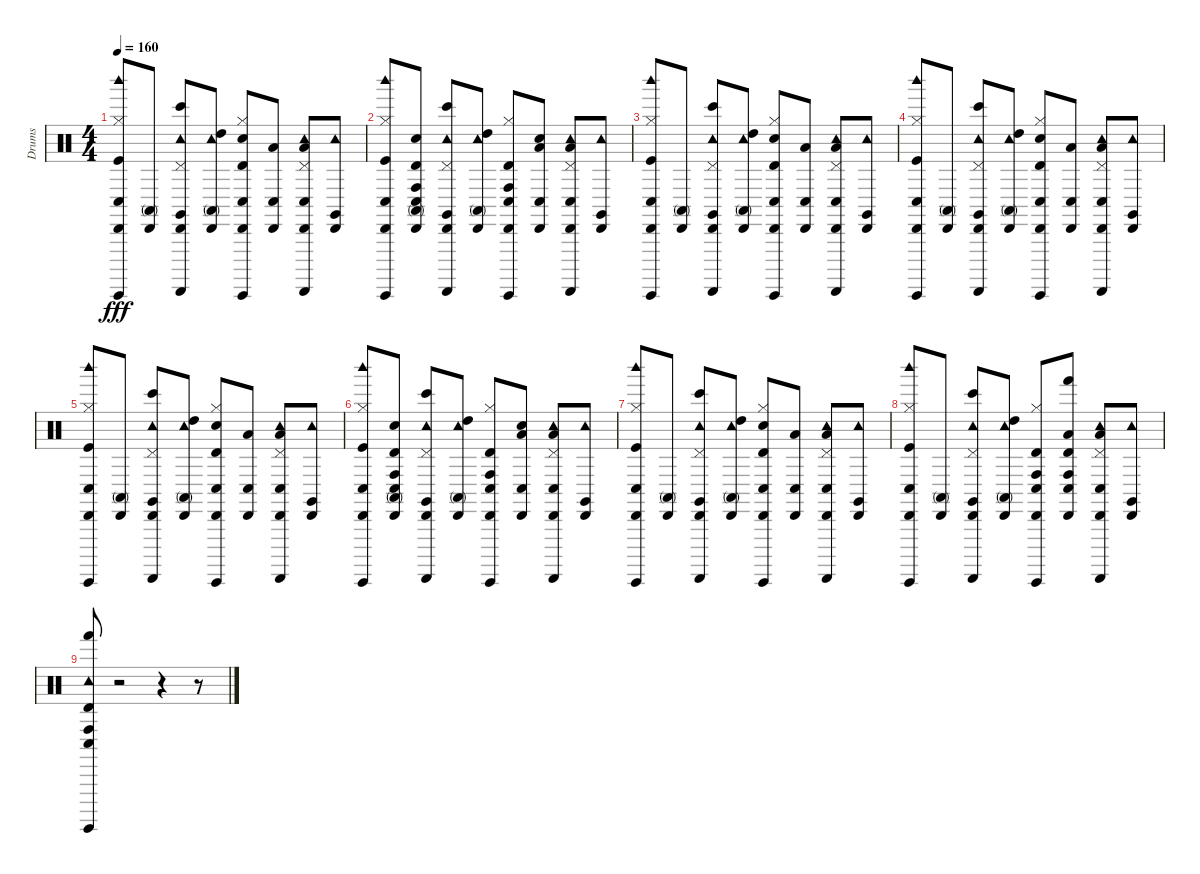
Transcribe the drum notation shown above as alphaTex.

\track ("Drums" "Drums") {instrument percussion}
\staff {score}
\articulation defaults
\ts (4 4)
\tempo 160
\clef neutral
\ks c
("Kick (hit)" "Cabasa (hit)" "Hi-Hat (closed)" "Guiro (hit)" "Woodblock high (hit)" "Conga low (hit)").8{dy fff} ("Cabasa (hit)" "Conga high (mute)").8 ("Tambourine (hit)" "Cabasa (hit)" "Pedal Hi-Hat (hit)" "Guiro (scrap-return)" "Claves (hit)" "Bongo High (hit)").8 ("Tambourine (hit)" "Cabasa (hit)" "High Tom (hit)" "Conga high (mute)").8 ("Electric Snare (hit)" "Cabasa (hit)" "Hi-Hat (closed)" "Guiro (hit)" "Timbale high (hit)" "Conga low (hit)").8 ("Cabasa (hit)" "Conga low (hit)" "Low Tom (hit)").8 ("Tambourine (hit)" "Cabasa (hit)" "Pedal Hi-Hat (hit)" "Guiro (scrap-return)" "Conga low (hit)" "Low Tom (hit)").8 ("Tambourine (hit)" "Cabasa (hit)" "Claves (hit)").8 |
("Kick (hit)" "Cabasa (hit)" "Hi-Hat (closed)" "Guiro (hit)" "Woodblock high (hit)" "Conga low (hit)").8 ("Cabasa (hit)" "Conga high (mute)" "Electric Snare (hit)" "Timbale high (hit)" "Conga low (hit)" "Conga high (hit)").8 ("Tambourine (hit)" "Cabasa (hit)" "Pedal Hi-Hat (hit)" "Guiro (scrap-return)" "Claves (hit)" "Bongo High (hit)").8 ("Tambourine (hit)" "Cabasa (hit)" "High Tom (hit)" "Conga high (mute)").8 ("Cabasa (hit)" "Hi-Hat (closed)" "Guiro (hit)" "Timbale high (hit)" "Conga low (hit)" "Conga high (hit)").8 ("Cabasa (hit)" "Conga low (hit)" "Low Tom (hit)" "Electric Snare (hit)").8 ("Tambourine (hit)" "Cabasa (hit)" "Pedal Hi-Hat (hit)" "Guiro (scrap-return)" "Conga low (hit)" "Low Tom (hit)").8 ("Tambourine (hit)" "Cabasa (hit)" "Claves (hit)").8 |
("Kick (hit)" "Cabasa (hit)" "Hi-Hat (closed)" "Guiro (hit)" "Woodblock high (hit)" "Conga low (hit)").8 ("Cabasa (hit)" "Conga high (mute)").8 ("Tambourine (hit)" "Cabasa (hit)" "Pedal Hi-Hat (hit)" "Guiro (scrap-return)" "Claves (hit)" "Bongo High (hit)").8 ("Tambourine (hit)" "Cabasa (hit)" "High Tom (hit)" "Conga high (mute)").8 ("Electric Snare (hit)" "Cabasa (hit)" "Hi-Hat (closed)" "Guiro (hit)" "Timbale high (hit)" "Conga low (hit)").8 ("Cabasa (hit)" "Conga low (hit)" "Low Tom (hit)").8 ("Tambourine (hit)" "Cabasa (hit)" "Pedal Hi-Hat (hit)" "Guiro (scrap-return)" "Conga low (hit)" "Low Tom (hit)").8 ("Tambourine (hit)" "Cabasa (hit)" "Claves (hit)").8 |
("Kick (hit)" "Cabasa (hit)" "Hi-Hat (closed)" "Guiro (hit)" "Woodblock high (hit)" "Conga low (hit)").8 ("Cabasa (hit)" "Conga high (mute)").8 ("Tambourine (hit)" "Cabasa (hit)" "Pedal Hi-Hat (hit)" "Guiro (scrap-return)" "Claves (hit)" "Bongo High (hit)").8 ("Tambourine (hit)" "Cabasa (hit)" "High Tom (hit)" "Conga high (mute)").8 ("Electric Snare (hit)" "Cabasa (hit)" "Hi-Hat (closed)" "Guiro (hit)" "Timbale high (hit)" "Conga low (hit)").8 ("Cabasa (hit)" "Conga low (hit)" "Low Tom (hit)").8 ("Tambourine (hit)" "Cabasa (hit)" "Pedal Hi-Hat (hit)" "Guiro (scrap-return)" "Conga low (hit)" "Low Tom (hit)").8 ("Tambourine (hit)" "Cabasa (hit)" "Claves (hit)").8 |
("Kick (hit)" "Cabasa (hit)" "Hi-Hat (closed)" "Guiro (hit)" "Woodblock high (hit)" "Conga low (hit)").8 ("Cabasa (hit)" "Conga high (mute)").8 ("Tambourine (hit)" "Cabasa (hit)" "Pedal Hi-Hat (hit)" "Guiro (scrap-return)" "Claves (hit)" "Bongo High (hit)").8 ("Tambourine (hit)" "Cabasa (hit)" "High Tom (hit)" "Conga high (mute)").8 ("Electric Snare (hit)" "Cabasa (hit)" "Hi-Hat (closed)" "Guiro (hit)" "Timbale high (hit)" "Conga low (hit)").8 ("Cabasa (hit)" "Conga low (hit)" "Low Tom (hit)").8 ("Tambourine (hit)" "Cabasa (hit)" "Pedal Hi-Hat (hit)" "Guiro (scrap-return)" "Conga low (hit)" "Low Tom (hit)").8 ("Tambourine (hit)" "Cabasa (hit)" "Claves (hit)").8 |
("Kick (hit)" "Cabasa (hit)" "Hi-Hat (closed)" "Guiro (hit)" "Woodblock high (hit)" "Conga low (hit)").8 ("Cabasa (hit)" "Conga high (mute)" "Electric Snare (hit)" "Timbale high (hit)" "Conga low (hit)" "Conga high (hit)").8 ("Tambourine (hit)" "Cabasa (hit)" "Pedal Hi-Hat (hit)" "Guiro (scrap-return)" "Claves (hit)" "Bongo High (hit)").8 ("Tambourine (hit)" "Cabasa (hit)" "High Tom (hit)" "Conga high (mute)").8 ("Cabasa (hit)" "Hi-Hat (closed)" "Guiro (hit)" "Timbale high (hit)" "Conga low (hit)" "Conga high (hit)").8 ("Cabasa (hit)" "Conga low (hit)" "Low Tom (hit)" "Electric Snare (hit)").8 ("Tambourine (hit)" "Cabasa (hit)" "Pedal Hi-Hat (hit)" "Guiro (scrap-return)" "Conga low (hit)" "Low Tom (hit)").8 ("Tambourine (hit)" "Cabasa (hit)" "Claves (hit)").8 |
("Kick (hit)" "Cabasa (hit)" "Hi-Hat (closed)" "Guiro (hit)" "Woodblock high (hit)" "Conga low (hit)").8 ("Cabasa (hit)" "Conga high (mute)").8 ("Tambourine (hit)" "Cabasa (hit)" "Pedal Hi-Hat (hit)" "Guiro (scrap-return)" "Claves (hit)" "Bongo High (hit)").8 ("Tambourine (hit)" "Cabasa (hit)" "High Tom (hit)" "Conga high (mute)").8 ("Electric Snare (hit)" "Cabasa (hit)" "Hi-Hat (closed)" "Guiro (hit)" "Timbale high (hit)" "Conga low (hit)").8 ("Cabasa (hit)" "Conga low (hit)" "Low Tom (hit)").8 ("Tambourine (hit)" "Cabasa (hit)" "Pedal Hi-Hat (hit)" "Guiro (scrap-return)" "Conga low (hit)" "Low Tom (hit)").8 ("Tambourine (hit)" "Cabasa (hit)" "Claves (hit)").8 |
("Kick (hit)" "Cabasa (hit)" "Hi-Hat (closed)" "Guiro (hit)" "Woodblock high (hit)" "Conga low (hit)").8 ("Cabasa (hit)" "Conga high (mute)").8 ("Tambourine (hit)" "Cabasa (hit)" "Pedal Hi-Hat (hit)" "Guiro (scrap-return)" "Claves (hit)" "Bongo High (hit)").8 ("Tambourine (hit)" "Cabasa (hit)" "High Tom (hit)" "Conga high (mute)").8 ("Cabasa (hit)" "Hi-Hat (closed)" "Guiro (hit)" "Timbale high (hit)" "Conga low (hit)" "Conga high (hit)").8 ("Cabasa (hit)" "Conga low (hit)" "Low Tom (hit)" "Timbale high (hit)" "Conga high (hit)" "Hand (hit)").8 ("Tambourine (hit)" "Cabasa (hit)" "Pedal Hi-Hat (hit)" "Guiro (scrap-return)" "Conga low (hit)" "Low Tom (hit)").8 ("Tambourine (hit)" "Cabasa (hit)" "Claves (hit)").8 |
("Timbale high (hit)" "Conga low (hit)" "Conga high (hit)" "Hand (hit)" "Surdo (hit)" "Tambourine (hit)").8 r.2 r.4 r.8
